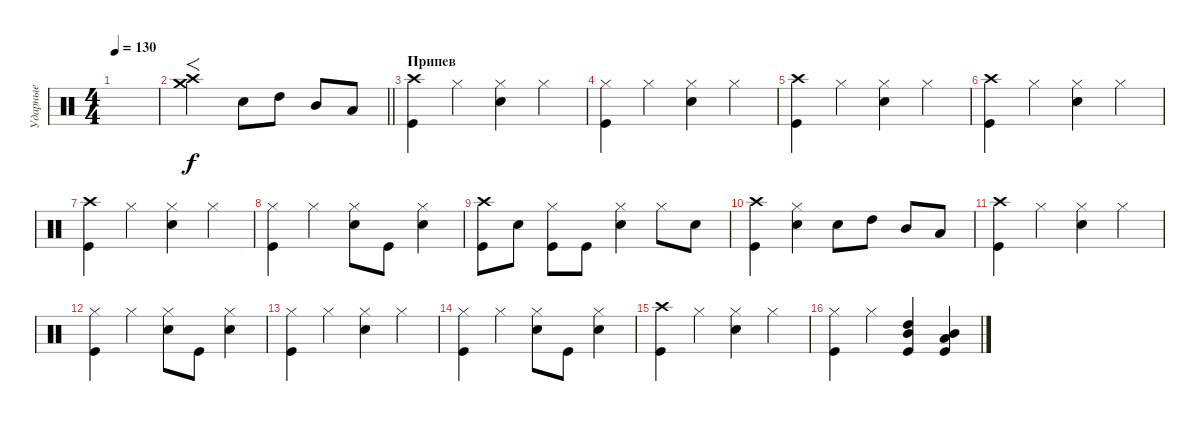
\track ("Ударные" "Ударные") {solo instrument percussion}
\staff {score}
\articulation defaults
\ts (4 4)
\tempo 130
\clef neutral
\ks c
|
\barLineRight lightlight
("Crash high (hit)" "Crash medium (hit)").2{f} "Snare (hit) 2".8{dy f} "High Tom (hit)".8 "Mid Tom (hit)".8 "Low Tom (hit)".8 |
\section ("" "Припев")
("Kick (hit)" "Crash high (hit)").4 "Hi-Hat (closed)".4 ("Snare (hit) 2" "Hi-Hat (closed)").4 "Hi-Hat (closed)".4 |
("Kick (hit)" "Hi-Hat (closed)").4 "Hi-Hat (closed)".4 ("Snare (hit) 2" "Hi-Hat (closed)").4 "Hi-Hat (closed)".4 |
("Kick (hit)" "Crash high (hit)").4 "Hi-Hat (closed)".4 ("Snare (hit) 2" "Hi-Hat (closed)").4 "Hi-Hat (closed)".4 |
("Kick (hit)" "Crash high (hit)").4 "Hi-Hat (closed)".4 ("Snare (hit) 2" "Hi-Hat (closed)").4 "Hi-Hat (closed)".4 |
("Kick (hit)" "Crash high (hit)").4 "Hi-Hat (closed)".4 ("Snare (hit) 2" "Hi-Hat (closed)").4 "Hi-Hat (closed)".4 |
("Kick (hit)" "Hi-Hat (closed)").4 "Hi-Hat (closed)".4 ("Snare (hit) 2" "Hi-Hat (closed)").8 "Kick (hit)".8 ("Snare (hit) 2" "Hi-Hat (closed)").4 |
("Kick (hit)" "Crash high (hit)").8 "Snare (hit) 2".8 ("Kick (hit)" "Hi-Hat (closed)").8 "Kick (hit)".8 ("Snare (hit) 2" "Hi-Hat (closed)").4 "Hi-Hat (closed)".8 "Snare (hit) 2".8 |
("Kick (hit)" "Crash high (hit)").4 ("Snare (hit) 2" "Hi-Hat (closed)").4 "Snare (hit) 2".8 "High Tom (hit)".8 "Mid Tom (hit)".8 "Low Tom (hit)".8 |
("Kick (hit)" "Crash high (hit)").4 "Hi-Hat (closed)".4 ("Snare (hit) 2" "Hi-Hat (closed)").4 "Hi-Hat (closed)".4 |
("Kick (hit)" "Hi-Hat (closed)").4 "Hi-Hat (closed)".4 ("Snare (hit) 2" "Hi-Hat (closed)").8 "Kick (hit)".8 ("Snare (hit) 2" "Hi-Hat (closed)").4 |
("Kick (hit)" "Hi-Hat (closed)").4 "Hi-Hat (closed)".4 ("Snare (hit) 2" "Hi-Hat (closed)").4 "Hi-Hat (closed)".4 |
("Kick (hit)" "Hi-Hat (closed)").4 "Hi-Hat (closed)".4 ("Snare (hit) 2" "Hi-Hat (closed)").8 "Kick (hit)".8 ("Snare (hit) 2" "Hi-Hat (closed)").4 |
("Kick (hit)" "Crash high (hit)").4 "Hi-Hat (closed)".4 ("Snare (hit) 2" "Hi-Hat (closed)").4 "Hi-Hat (closed)".4 |
("Kick (hit)" "Hi-Hat (closed)").4 "Hi-Hat (closed)".4 ("High Tom (hit)" "Mid Tom (hit)" "Kick (hit)").4 ("Mid Tom (hit)" "Low Tom (hit)" "Kick (hit)").4
